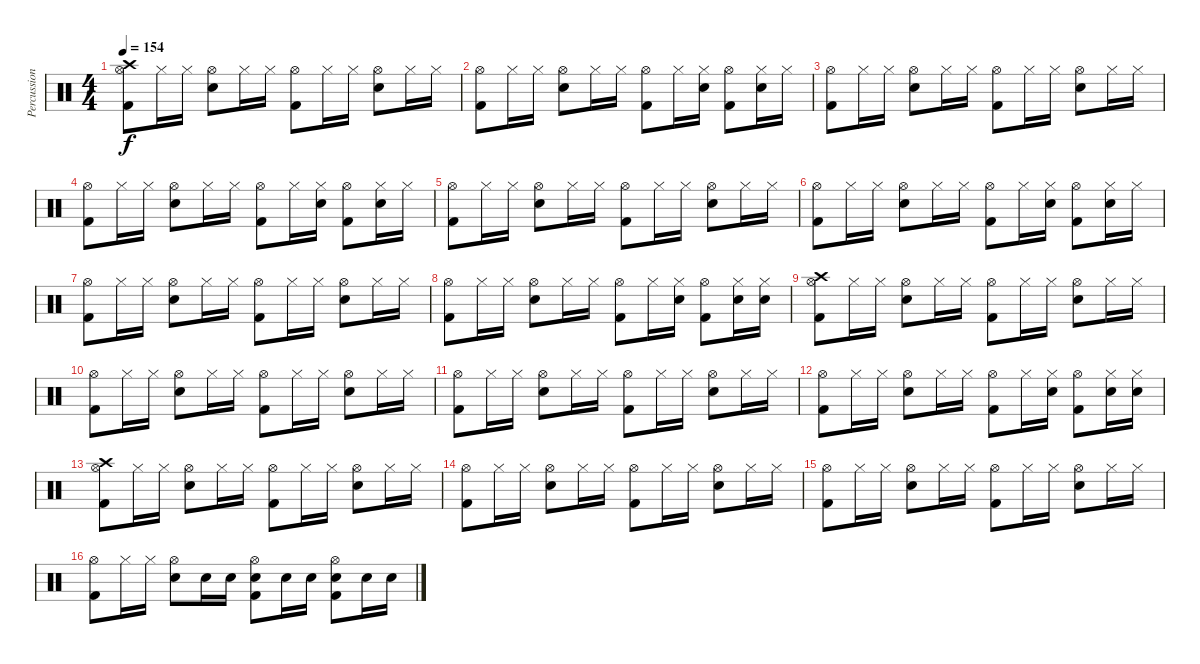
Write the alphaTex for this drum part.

\track ("Percussion" "Percussion") {instrument percussion}
\staff {score}
\articulation defaults
\ts (4 4)
\section ("" "")
\tempo 154
\clef neutral
\ks c
("Crash high (hit)" "Hi-Hat (open)" "Kick (hit) 2").8{dy f} "Hi-Hat (closed)".16 "Hi-Hat (closed)".16 ("Hi-Hat (open)" "Snare (hit) 2").8 "Hi-Hat (closed)".16 "Hi-Hat (closed)".16 ("Hi-Hat (open)" "Kick (hit) 2").8 "Hi-Hat (closed)".16 "Hi-Hat (closed)".16 ("Hi-Hat (open)" "Snare (hit) 2").8 "Hi-Hat (closed)".16 "Hi-Hat (closed)".16 |
("Hi-Hat (open)" "Kick (hit) 2").8 "Hi-Hat (closed)".16 "Hi-Hat (closed)".16 ("Hi-Hat (open)" "Snare (hit) 2").8 "Hi-Hat (closed)".16 "Hi-Hat (closed)".16 ("Hi-Hat (open)" "Kick (hit) 2").8 "Hi-Hat (closed)".16 ("Hi-Hat (closed)" "Snare (hit) 2").16 ("Hi-Hat (open)" "Kick (hit) 2").8 ("Hi-Hat (closed)" "Snare (hit) 2").16 "Hi-Hat (closed)".16 |
("Hi-Hat (open)" "Kick (hit) 2").8 "Hi-Hat (closed)".16 "Hi-Hat (closed)".16 ("Hi-Hat (open)" "Snare (hit) 2").8 "Hi-Hat (closed)".16 "Hi-Hat (closed)".16 ("Hi-Hat (open)" "Kick (hit) 2").8 "Hi-Hat (closed)".16 "Hi-Hat (closed)".16 ("Hi-Hat (open)" "Snare (hit) 2").8 "Hi-Hat (closed)".16 "Hi-Hat (closed)".16 |
("Hi-Hat (open)" "Kick (hit) 2").8 "Hi-Hat (closed)".16 "Hi-Hat (closed)".16 ("Hi-Hat (open)" "Snare (hit) 2").8 "Hi-Hat (closed)".16 "Hi-Hat (closed)".16 ("Hi-Hat (open)" "Kick (hit) 2").8 "Hi-Hat (closed)".16 ("Hi-Hat (closed)" "Snare (hit) 2").16 ("Hi-Hat (open)" "Kick (hit) 2").8 ("Hi-Hat (closed)" "Snare (hit) 2").16 "Hi-Hat (closed)".16 |
("Hi-Hat (open)" "Kick (hit) 2").8 "Hi-Hat (closed)".16 "Hi-Hat (closed)".16 ("Hi-Hat (open)" "Snare (hit) 2").8 "Hi-Hat (closed)".16 "Hi-Hat (closed)".16 ("Hi-Hat (open)" "Kick (hit) 2").8 "Hi-Hat (closed)".16 "Hi-Hat (closed)".16 ("Hi-Hat (open)" "Snare (hit) 2").8 "Hi-Hat (closed)".16 "Hi-Hat (closed)".16 |
("Hi-Hat (open)" "Kick (hit) 2").8 "Hi-Hat (closed)".16 "Hi-Hat (closed)".16 ("Hi-Hat (open)" "Snare (hit) 2").8 "Hi-Hat (closed)".16 "Hi-Hat (closed)".16 ("Hi-Hat (open)" "Kick (hit) 2").8 "Hi-Hat (closed)".16 ("Hi-Hat (closed)" "Snare (hit) 2").16 ("Hi-Hat (open)" "Kick (hit) 2").8 ("Hi-Hat (closed)" "Snare (hit) 2").16 "Hi-Hat (closed)".16 |
("Hi-Hat (open)" "Kick (hit) 2").8 "Hi-Hat (closed)".16 "Hi-Hat (closed)".16 ("Hi-Hat (open)" "Snare (hit) 2").8 "Hi-Hat (closed)".16 "Hi-Hat (closed)".16 ("Hi-Hat (open)" "Kick (hit) 2").8 "Hi-Hat (closed)".16 "Hi-Hat (closed)".16 ("Hi-Hat (open)" "Snare (hit) 2").8 "Hi-Hat (closed)".16 "Hi-Hat (closed)".16 |
("Hi-Hat (open)" "Kick (hit) 2").8 "Hi-Hat (closed)".16 "Hi-Hat (closed)".16 ("Hi-Hat (open)" "Snare (hit) 2").8 "Hi-Hat (closed)".16 "Hi-Hat (closed)".16 ("Hi-Hat (open)" "Kick (hit) 2").8 "Hi-Hat (closed)".16 ("Hi-Hat (closed)" "Snare (hit) 2").16 ("Hi-Hat (open)" "Kick (hit) 2").8 ("Hi-Hat (closed)" "Snare (hit) 2").16 ("Hi-Hat (closed)" "Snare (hit) 2").16 |
\section ("" "")
("Crash high (hit)" "Hi-Hat (open)" "Kick (hit) 2").8 "Hi-Hat (closed)".16 "Hi-Hat (closed)".16 ("Hi-Hat (open)" "Snare (hit) 2").8 "Hi-Hat (closed)".16 "Hi-Hat (closed)".16 ("Hi-Hat (open)" "Kick (hit) 2").8 "Hi-Hat (closed)".16 "Hi-Hat (closed)".16 ("Hi-Hat (open)" "Snare (hit) 2").8 "Hi-Hat (closed)".16 "Hi-Hat (closed)".16 |
("Hi-Hat (open)" "Kick (hit) 2").8 "Hi-Hat (closed)".16 "Hi-Hat (closed)".16 ("Hi-Hat (open)" "Snare (hit) 2").8 "Hi-Hat (closed)".16 "Hi-Hat (closed)".16 ("Hi-Hat (open)" "Kick (hit) 2").8 "Hi-Hat (closed)".16 "Hi-Hat (closed)".16 ("Hi-Hat (open)" "Snare (hit) 2").8 "Hi-Hat (closed)".16 "Hi-Hat (closed)".16 |
("Hi-Hat (open)" "Kick (hit) 2").8 "Hi-Hat (closed)".16 "Hi-Hat (closed)".16 ("Hi-Hat (open)" "Snare (hit) 2").8 "Hi-Hat (closed)".16 "Hi-Hat (closed)".16 ("Hi-Hat (open)" "Kick (hit) 2").8 "Hi-Hat (closed)".16 "Hi-Hat (closed)".16 ("Hi-Hat (open)" "Snare (hit) 2").8 "Hi-Hat (closed)".16 "Hi-Hat (closed)".16 |
("Hi-Hat (open)" "Kick (hit) 2").8 "Hi-Hat (closed)".16 "Hi-Hat (closed)".16 ("Hi-Hat (open)" "Snare (hit) 2").8 "Hi-Hat (closed)".16 "Hi-Hat (closed)".16 ("Hi-Hat (open)" "Kick (hit) 2").8 "Hi-Hat (closed)".16 ("Hi-Hat (closed)" "Snare (hit) 2").16 ("Hi-Hat (open)" "Kick (hit) 2").8 ("Hi-Hat (closed)" "Snare (hit) 2").16 ("Hi-Hat (closed)" "Snare (hit) 2").16 |
("Crash high (hit)" "Hi-Hat (open)" "Kick (hit) 2").8 "Hi-Hat (closed)".16 "Hi-Hat (closed)".16 ("Hi-Hat (open)" "Snare (hit) 2").8 "Hi-Hat (closed)".16 "Hi-Hat (closed)".16 ("Hi-Hat (open)" "Kick (hit) 2").8 "Hi-Hat (closed)".16 "Hi-Hat (closed)".16 ("Hi-Hat (open)" "Snare (hit) 2").8 "Hi-Hat (closed)".16 "Hi-Hat (closed)".16 |
("Hi-Hat (open)" "Kick (hit) 2").8 "Hi-Hat (closed)".16 "Hi-Hat (closed)".16 ("Hi-Hat (open)" "Snare (hit) 2").8 "Hi-Hat (closed)".16 "Hi-Hat (closed)".16 ("Hi-Hat (open)" "Kick (hit) 2").8 "Hi-Hat (closed)".16 "Hi-Hat (closed)".16 ("Hi-Hat (open)" "Snare (hit) 2").8 "Hi-Hat (closed)".16 "Hi-Hat (closed)".16 |
("Hi-Hat (open)" "Kick (hit) 2").8 "Hi-Hat (closed)".16 "Hi-Hat (closed)".16 ("Hi-Hat (open)" "Snare (hit) 2").8 "Hi-Hat (closed)".16 "Hi-Hat (closed)".16 ("Hi-Hat (open)" "Kick (hit) 2").8 "Hi-Hat (closed)".16 "Hi-Hat (closed)".16 ("Hi-Hat (open)" "Snare (hit) 2").8 "Hi-Hat (closed)".16 "Hi-Hat (closed)".16 |
("Hi-Hat (open)" "Kick (hit) 2").8 "Hi-Hat (closed)".16 "Hi-Hat (closed)".16 ("Hi-Hat (open)" "Snare (hit) 2").8 "Snare (hit) 2".16 "Snare (hit) 2".16 ("Hi-Hat (open)" "Snare (hit) 2" "Kick (hit) 2").8 "Snare (hit) 2".16 "Snare (hit) 2".16 ("Hi-Hat (open)" "Snare (hit) 2" "Kick (hit) 2").8 "Snare (hit) 2".16 "Snare (hit) 2".16
